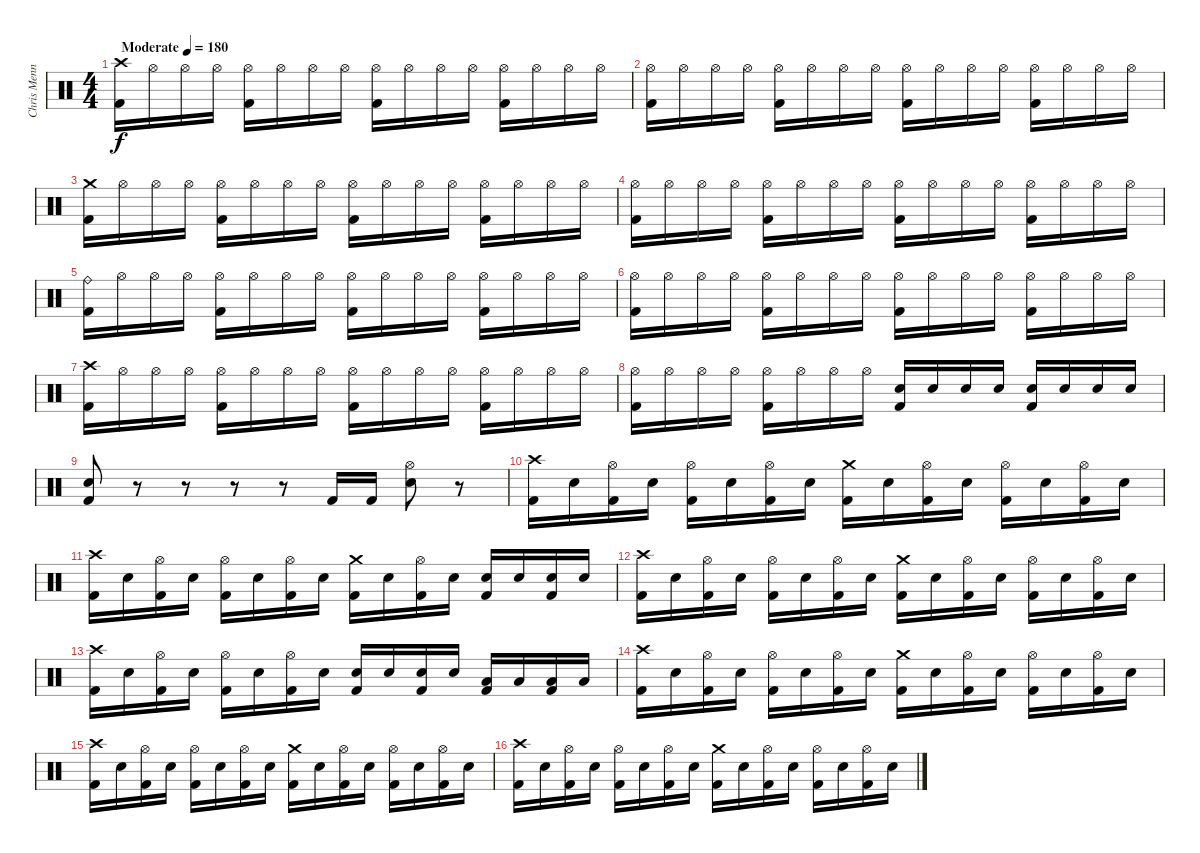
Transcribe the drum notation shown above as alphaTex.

\track ("Chris Menning" "Chris Menn") {instrument percussion}
\staff {score}
\articulation defaults
\ts (4 4)
\tempo (180 "Moderate")
\clef neutral
\ks c
("Crash high (hit)" "Kick (hit) 2").16{dy f} "Hi-Hat (open)".16 "Hi-Hat (open)".16 "Hi-Hat (open)".16 ("Hi-Hat (open)" "Kick (hit) 2").16 "Hi-Hat (open)".16 "Hi-Hat (open)".16 "Hi-Hat (open)".16 ("Hi-Hat (open)" "Kick (hit) 2").16 "Hi-Hat (open)".16 "Hi-Hat (open)".16 "Hi-Hat (open)".16 ("Hi-Hat (open)" "Kick (hit) 2").16 "Hi-Hat (open)".16 "Hi-Hat (open)".16 "Hi-Hat (open)".16 |
("Hi-Hat (open)" "Kick (hit) 2").16 "Hi-Hat (open)".16 "Hi-Hat (open)".16 "Hi-Hat (open)".16 ("Hi-Hat (open)" "Kick (hit) 2").16 "Hi-Hat (open)".16 "Hi-Hat (open)".16 "Hi-Hat (open)".16 ("Hi-Hat (open)" "Kick (hit) 2").16 "Hi-Hat (open)".16 "Hi-Hat (open)".16 "Hi-Hat (open)".16 ("Hi-Hat (open)" "Kick (hit) 2").16 "Hi-Hat (open)".16 "Hi-Hat (open)".16 "Hi-Hat (open)".16 |
("Crash medium (hit)" "Kick (hit) 2").16 "Hi-Hat (open)".16 "Hi-Hat (open)".16 "Hi-Hat (open)".16 ("Hi-Hat (open)" "Kick (hit) 2").16 "Hi-Hat (open)".16 "Hi-Hat (open)".16 "Hi-Hat (open)".16 ("Hi-Hat (open)" "Kick (hit) 2").16 "Hi-Hat (open)".16 "Hi-Hat (open)".16 "Hi-Hat (open)".16 ("Hi-Hat (open)" "Kick (hit) 2").16 "Hi-Hat (open)".16 "Hi-Hat (open)".16 "Hi-Hat (open)".16 |
("Hi-Hat (open)" "Kick (hit) 2").16 "Hi-Hat (open)".16 "Hi-Hat (open)".16 "Hi-Hat (open)".16 ("Hi-Hat (open)" "Kick (hit) 2").16 "Hi-Hat (open)".16 "Hi-Hat (open)".16 "Hi-Hat (open)".16 ("Hi-Hat (open)" "Kick (hit) 2").16 "Hi-Hat (open)".16 "Hi-Hat (open)".16 "Hi-Hat (open)".16 ("Hi-Hat (open)" "Kick (hit) 2").16 "Hi-Hat (open)".16 "Hi-Hat (open)".16 "Hi-Hat (open)".16 |
("Ride (bell)" "Kick (hit) 2").16 "Hi-Hat (open)".16 "Hi-Hat (open)".16 "Hi-Hat (open)".16 ("Hi-Hat (open)" "Kick (hit) 2").16 "Hi-Hat (open)".16 "Hi-Hat (open)".16 "Hi-Hat (open)".16 ("Hi-Hat (open)" "Kick (hit) 2").16 "Hi-Hat (open)".16 "Hi-Hat (open)".16 "Hi-Hat (open)".16 ("Hi-Hat (open)" "Kick (hit) 2").16 "Hi-Hat (open)".16 "Hi-Hat (open)".16 "Hi-Hat (open)".16 |
("Hi-Hat (open)" "Kick (hit) 2").16 "Hi-Hat (open)".16 "Hi-Hat (open)".16 "Hi-Hat (open)".16 ("Hi-Hat (open)" "Kick (hit) 2").16 "Hi-Hat (open)".16 "Hi-Hat (open)".16 "Hi-Hat (open)".16 ("Hi-Hat (open)" "Kick (hit) 2").16 "Hi-Hat (open)".16 "Hi-Hat (open)".16 "Hi-Hat (open)".16 ("Hi-Hat (open)" "Kick (hit) 2").16 "Hi-Hat (open)".16 "Hi-Hat (open)".16 "Hi-Hat (open)".16 |
("Crash high (hit)" "Kick (hit) 2").16 "Hi-Hat (open)".16 "Hi-Hat (open)".16 "Hi-Hat (open)".16 ("Hi-Hat (open)" "Kick (hit) 2").16 "Hi-Hat (open)".16 "Hi-Hat (open)".16 "Hi-Hat (open)".16 ("Hi-Hat (open)" "Kick (hit) 2").16 "Hi-Hat (open)".16 "Hi-Hat (open)".16 "Hi-Hat (open)".16 ("Hi-Hat (open)" "Kick (hit) 2").16 "Hi-Hat (open)".16 "Hi-Hat (open)".16 "Hi-Hat (open)".16 |
("Hi-Hat (open)" "Kick (hit) 2").16 "Hi-Hat (open)".16 "Hi-Hat (open)".16 "Hi-Hat (open)".16 ("Hi-Hat (open)" "Kick (hit) 2").16 "Hi-Hat (open)".16 "Hi-Hat (open)".16 "Hi-Hat (open)".16 ("Electric Snare (hit)" "Kick (hit) 2").16 "Electric Snare (hit)".16 "Electric Snare (hit)".16 "Electric Snare (hit)".16 ("Electric Snare (hit)" "Kick (hit) 2").16 "Electric Snare (hit)".16 "Electric Snare (hit)".16 "Electric Snare (hit)".16 |
("Electric Snare (hit)" "Kick (hit) 2").8 r.8 r.8 r.8 r.8 "Kick (hit) 2".16 "Kick (hit) 2".16 ("Hi-Hat (open)" "Electric Snare (hit)").8 r.8 |
("Crash high (hit)" "Kick (hit) 2").16 "Electric Snare (hit)".16 ("Hi-Hat (open)" "Kick (hit) 2").16 "Electric Snare (hit)".16 ("Hi-Hat (open)" "Kick (hit) 2").16 "Electric Snare (hit)".16 ("Hi-Hat (open)" "Kick (hit) 2").16 "Electric Snare (hit)".16 ("Crash medium (hit)" "Kick (hit) 2").16 "Electric Snare (hit)".16 ("Hi-Hat (open)" "Kick (hit) 2").16 "Electric Snare (hit)".16 ("Hi-Hat (open)" "Kick (hit) 2").16 "Electric Snare (hit)".16 ("Hi-Hat (open)" "Kick (hit) 2").16 "Electric Snare (hit)".16 |
("Crash high (hit)" "Kick (hit) 2").16 "Electric Snare (hit)".16 ("Hi-Hat (open)" "Kick (hit) 2").16 "Electric Snare (hit)".16 ("Hi-Hat (open)" "Kick (hit) 2").16 "Electric Snare (hit)".16 ("Hi-Hat (open)" "Kick (hit) 2").16 "Electric Snare (hit)".16 ("Crash medium (hit)" "Kick (hit) 2").16 "Electric Snare (hit)".16 ("Hi-Hat (open)" "Kick (hit) 2").16 "Electric Snare (hit)".16 ("Electric Snare (hit)" "Kick (hit) 2").16 "Electric Snare (hit)".16 ("Electric Snare (hit)" "Kick (hit) 2").16 "Electric Snare (hit)".16 |
("Crash high (hit)" "Kick (hit) 2").16 "Electric Snare (hit)".16 ("Hi-Hat (open)" "Kick (hit) 2").16 "Electric Snare (hit)".16 ("Hi-Hat (open)" "Kick (hit) 2").16 "Electric Snare (hit)".16 ("Hi-Hat (open)" "Kick (hit) 2").16 "Electric Snare (hit)".16 ("Crash medium (hit)" "Kick (hit) 2").16 "Electric Snare (hit)".16 ("Hi-Hat (open)" "Kick (hit) 2").16 "Electric Snare (hit)".16 ("Hi-Hat (open)" "Kick (hit) 2").16 "Electric Snare (hit)".16 ("Hi-Hat (open)" "Kick (hit) 2").16 "Electric Snare (hit)".16 |
("Crash high (hit)" "Kick (hit) 2").16 "Electric Snare (hit)".16 ("Hi-Hat (open)" "Kick (hit) 2").16 "Electric Snare (hit)".16 ("Hi-Hat (open)" "Kick (hit) 2").16 "Electric Snare (hit)".16 ("Hi-Hat (open)" "Kick (hit) 2").16 "Electric Snare (hit)".16 ("Electric Snare (hit)" "Kick (hit) 2").16 "Electric Snare (hit)".16 ("Electric Snare (hit)" "Kick (hit) 2").16 "Electric Snare (hit)".16 ("Low Tom (hit)" "Kick (hit) 2").16 "Low Tom (hit)".16 ("Low Tom (hit)" "Kick (hit) 2").16 "Low Tom (hit)".16 |
("Crash high (hit)" "Kick (hit) 2").16 "Electric Snare (hit)".16 ("Hi-Hat (open)" "Kick (hit) 2").16 "Electric Snare (hit)".16 ("Hi-Hat (open)" "Kick (hit) 2").16 "Electric Snare (hit)".16 ("Hi-Hat (open)" "Kick (hit) 2").16 "Electric Snare (hit)".16 ("Crash medium (hit)" "Kick (hit) 2").16 "Electric Snare (hit)".16 ("Hi-Hat (open)" "Kick (hit) 2").16 "Electric Snare (hit)".16 ("Hi-Hat (open)" "Kick (hit) 2").16 "Electric Snare (hit)".16 ("Hi-Hat (open)" "Kick (hit) 2").16 "Electric Snare (hit)".16 |
("Crash high (hit)" "Kick (hit) 2").16 "Electric Snare (hit)".16 ("Hi-Hat (open)" "Kick (hit) 2").16 "Electric Snare (hit)".16 ("Hi-Hat (open)" "Kick (hit) 2").16 "Electric Snare (hit)".16 ("Hi-Hat (open)" "Kick (hit) 2").16 "Electric Snare (hit)".16 ("Crash medium (hit)" "Kick (hit) 2").16 "Electric Snare (hit)".16 ("Hi-Hat (open)" "Kick (hit) 2").16 "Electric Snare (hit)".16 ("Hi-Hat (open)" "Kick (hit) 2").16 "Electric Snare (hit)".16 ("Hi-Hat (open)" "Kick (hit) 2").16 "Electric Snare (hit)".16 |
("Crash high (hit)" "Kick (hit) 2").16 "Electric Snare (hit)".16 ("Hi-Hat (open)" "Kick (hit) 2").16 "Electric Snare (hit)".16 ("Hi-Hat (open)" "Kick (hit) 2").16 "Electric Snare (hit)".16 ("Hi-Hat (open)" "Kick (hit) 2").16 "Electric Snare (hit)".16 ("Crash medium (hit)" "Kick (hit) 2").16 "Electric Snare (hit)".16 ("Hi-Hat (open)" "Kick (hit) 2").16 "Electric Snare (hit)".16 ("Hi-Hat (open)" "Kick (hit) 2").16 "Electric Snare (hit)".16 ("Hi-Hat (open)" "Kick (hit) 2").16 "Electric Snare (hit)".16
